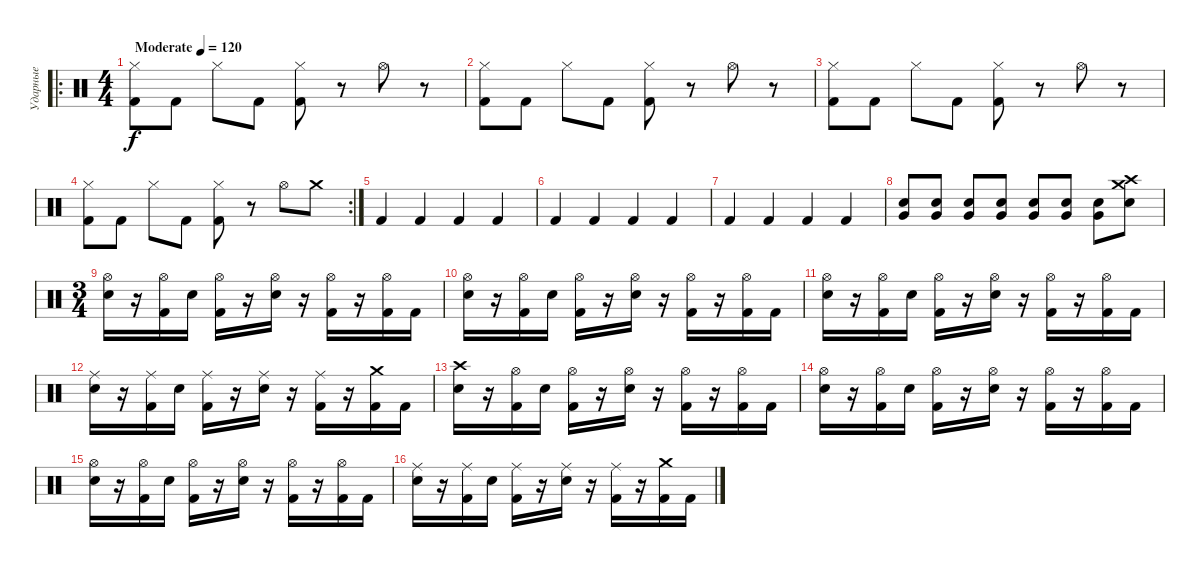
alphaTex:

\track ("Ударные" "Ударные") {instrument percussion}
\staff {score}
\articulation defaults
\ro
\ts (4 4)
\tempo (120 "Moderate")
\clef neutral
\ks c
("Hi-Hat (closed)" "Kick (hit) 2").8{dy f} "Kick (hit) 2".8 "Hi-Hat (closed)".8 "Kick (hit) 2".8 ("Hi-Hat (closed)" "Kick (hit) 2").8 r.8 "Hi-Hat (open)".8 r.8 |
("Hi-Hat (closed)" "Kick (hit) 2").8 "Kick (hit) 2".8 "Hi-Hat (closed)".8 "Kick (hit) 2".8 ("Hi-Hat (closed)" "Kick (hit) 2").8 r.8 "Hi-Hat (open)".8 r.8 |
("Hi-Hat (closed)" "Kick (hit) 2").8 "Kick (hit) 2".8 "Hi-Hat (closed)".8 "Kick (hit) 2".8 ("Hi-Hat (closed)" "Kick (hit) 2").8 r.8 "Hi-Hat (open)".8 r.8 |
\rc 2
("Hi-Hat (closed)" "Kick (hit) 2").8 "Kick (hit) 2".8 "Hi-Hat (closed)".8 "Kick (hit) 2".8 ("Hi-Hat (closed)" "Kick (hit) 2").8 r.8 "Hi-Hat (open)".8 "Crash medium (hit)".8 |
"Kick (hit) 2".4 "Kick (hit) 2".4 "Kick (hit) 2".4 "Kick (hit) 2".4 |
"Kick (hit) 2".4 "Kick (hit) 2".4 "Kick (hit) 2".4 "Kick (hit) 2".4 |
"Kick (hit) 2".4 "Kick (hit) 2".4 "Kick (hit) 2".4 "Kick (hit) 2".4 |
("Very Low Tom (hit)" "Snare (hit) 2").8 ("Very Low Tom (hit)" "Snare (hit) 2").8 ("Very Low Tom (hit)" "Snare (hit) 2").8 ("Very Low Tom (hit)" "Snare (hit) 2").8 ("Very Low Tom (hit)" "Snare (hit) 2").8 ("Very Low Tom (hit)" "Snare (hit) 2").8 ("Very Low Tom (hit)" "Snare (hit) 2").8 ("Crash medium (hit)" "Snare (hit) 2" "Crash high (hit)").8 |
\ts (3 4)
("Hi-Hat (open)" "Electric Snare (hit)").16 r.16 ("Hi-Hat (open)" "Kick (hit) 2").16 "Electric Snare (hit)".16 ("Hi-Hat (open)" "Kick (hit) 2").16 r.16 ("Hi-Hat (open)" "Electric Snare (hit)").16 r.16 ("Hi-Hat (open)" "Kick (hit) 2").16 r.16 ("Hi-Hat (open)" "Kick (hit) 2").16 "Kick (hit) 2".16 |
("Hi-Hat (open)" "Electric Snare (hit)").16 r.16 ("Hi-Hat (open)" "Kick (hit) 2").16 "Electric Snare (hit)".16 ("Hi-Hat (open)" "Kick (hit) 2").16 r.16 ("Hi-Hat (open)" "Electric Snare (hit)").16 r.16 ("Hi-Hat (open)" "Kick (hit) 2").16 r.16 ("Hi-Hat (open)" "Kick (hit) 2").16 "Kick (hit) 2".16 |
("Hi-Hat (open)" "Electric Snare (hit)").16 r.16 ("Hi-Hat (open)" "Kick (hit) 2").16 "Electric Snare (hit)".16 ("Hi-Hat (open)" "Kick (hit) 2").16 r.16 ("Hi-Hat (open)" "Electric Snare (hit)").16 r.16 ("Hi-Hat (open)" "Kick (hit) 2").16 r.16 ("Hi-Hat (open)" "Kick (hit) 2").16 "Kick (hit) 2".16 |
("Ride (middle)" "Electric Snare (hit)").16 r.16 ("Ride (middle)" "Kick (hit) 2").16 "Electric Snare (hit)".16 ("Ride (middle)" "Kick (hit) 2").16 r.16 ("Ride (middle)" "Electric Snare (hit)").16 r.16 ("Ride (middle)" "Kick (hit) 2").16 r.16 ("Crash medium (hit)" "Kick (hit) 2").16 "Kick (hit) 2".16 |
("Crash high (hit)" "Electric Snare (hit)").16 r.16 ("Hi-Hat (open)" "Kick (hit) 2").16 "Electric Snare (hit)".16 ("Hi-Hat (open)" "Kick (hit) 2").16 r.16 ("Hi-Hat (open)" "Electric Snare (hit)").16 r.16 ("Hi-Hat (open)" "Kick (hit) 2").16 r.16 ("Hi-Hat (open)" "Kick (hit) 2").16 "Kick (hit) 2".16 |
("Hi-Hat (open)" "Electric Snare (hit)").16 r.16 ("Hi-Hat (open)" "Kick (hit) 2").16 "Electric Snare (hit)".16 ("Hi-Hat (open)" "Kick (hit) 2").16 r.16 ("Hi-Hat (open)" "Electric Snare (hit)").16 r.16 ("Hi-Hat (open)" "Kick (hit) 2").16 r.16 ("Hi-Hat (open)" "Kick (hit) 2").16 "Kick (hit) 2".16 |
("Hi-Hat (open)" "Electric Snare (hit)").16 r.16 ("Hi-Hat (open)" "Kick (hit) 2").16 "Electric Snare (hit)".16 ("Hi-Hat (open)" "Kick (hit) 2").16 r.16 ("Hi-Hat (open)" "Electric Snare (hit)").16 r.16 ("Hi-Hat (open)" "Kick (hit) 2").16 r.16 ("Hi-Hat (open)" "Kick (hit) 2").16 "Kick (hit) 2".16 |
("Ride (middle)" "Electric Snare (hit)").16 r.16 ("Ride (middle)" "Kick (hit) 2").16 "Electric Snare (hit)".16 ("Ride (middle)" "Kick (hit) 2").16 r.16 ("Ride (middle)" "Electric Snare (hit)").16 r.16 ("Ride (middle)" "Kick (hit) 2").16 r.16 ("Crash medium (hit)" "Kick (hit) 2").16 "Kick (hit) 2".16
